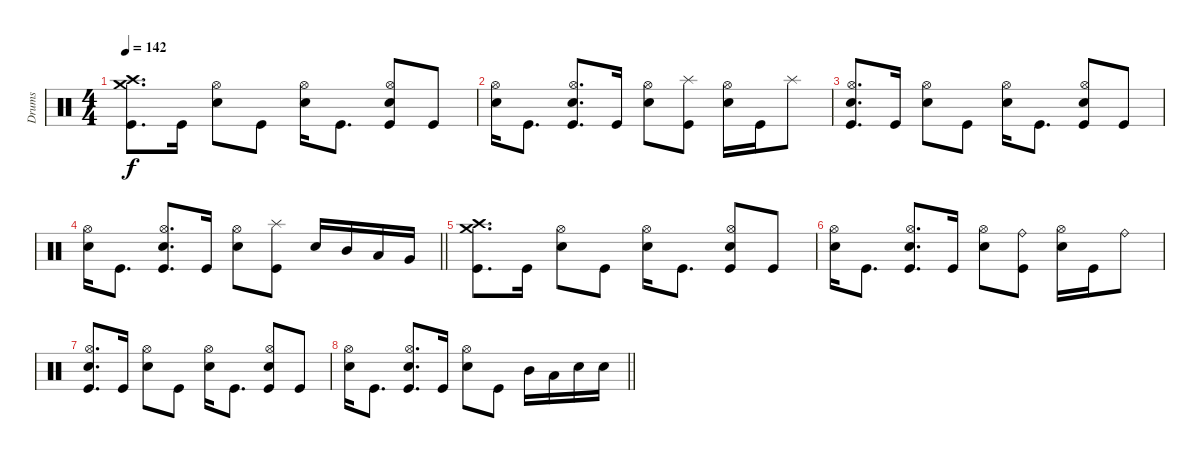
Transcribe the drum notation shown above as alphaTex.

\track ("Drums" "Drums") {instrument percussion}
\staff
\articulation defaults
\ts (4 4)
\tempo 142
\clef neutral
\ks c
("Crash high (hit)" "Crash medium (hit)" "Kick (hit)").8{d dy f} "Kick (hit)".16 ("Hi-Hat (open)" "Electric Snare (hit)").8 "Kick (hit)".8 ("Hi-Hat (open)" "Electric Snare (hit)").16 "Kick (hit)".8{d} ("Hi-Hat (open)" "Electric Snare (hit)" "Kick (hit)").8 "Kick (hit)".8 |
("Hi-Hat (open)" "Electric Snare (hit)").16 "Kick (hit)".8{d} ("Hi-Hat (open)" "Electric Snare (hit)" "Kick (hit)").8{d} "Kick (hit)".16 ("Hi-Hat (open)" "Electric Snare (hit)").8 ("Splash (hit)" "Kick (hit)").8 ("Hi-Hat (open)" "Electric Snare (hit)").16 "Kick (hit)".16 "Splash (hit)".8 |
("Hi-Hat (open)" "Electric Snare (hit)" "Kick (hit)").8{d} "Kick (hit)".16 ("Hi-Hat (open)" "Electric Snare (hit)").8 "Kick (hit)".8 ("Hi-Hat (open)" "Electric Snare (hit)").16 "Kick (hit)".8{d} ("Hi-Hat (open)" "Electric Snare (hit)" "Kick (hit)").8 "Kick (hit)".8 |
\barLineRight lightlight
("Hi-Hat (open)" "Electric Snare (hit)").16 "Kick (hit)".8{d} ("Hi-Hat (open)" "Electric Snare (hit)" "Kick (hit)").8{d} "Kick (hit)".16 ("Hi-Hat (open)" "Electric Snare (hit)").8 ("Splash (hit)" "Kick (hit)").8 "Electric Snare (hit)".16 "Mid Tom (hit)".16 "Low Tom (hit)".16 "Very Low Tom (hit)".16 |
("Crash high (hit)" "Crash medium (hit)" "Kick (hit)").8{d} "Kick (hit)".16 ("Hi-Hat (open)" "Electric Snare (hit)").8 "Kick (hit)".8 ("Hi-Hat (open)" "Electric Snare (hit)").16 "Kick (hit)".8{d} ("Hi-Hat (open)" "Electric Snare (hit)" "Kick (hit)").8 "Kick (hit)".8 |
("Hi-Hat (open)" "Electric Snare (hit)").16 "Kick (hit)".8{d} ("Hi-Hat (open)" "Electric Snare (hit)" "Kick (hit)").8{d} "Kick (hit)".16 ("Hi-Hat (open)" "Electric Snare (hit)").8 ("Ride (bell)" "Kick (hit)").8 ("Hi-Hat (open)" "Electric Snare (hit)").16 "Kick (hit)".16 "Ride (bell)".8 |
("Hi-Hat (open)" "Electric Snare (hit)" "Kick (hit)").8{d} "Kick (hit)".16 ("Hi-Hat (open)" "Electric Snare (hit)").8 "Kick (hit)".8 ("Hi-Hat (open)" "Electric Snare (hit)").16 "Kick (hit)".8{d} ("Hi-Hat (open)" "Electric Snare (hit)" "Kick (hit)").8 "Kick (hit)".8 |
\barLineRight lightlight
("Hi-Hat (open)" "Electric Snare (hit)").16 "Kick (hit)".8{d} ("Hi-Hat (open)" "Electric Snare (hit)" "Kick (hit)").8{d} "Kick (hit)".16 ("Hi-Hat (open)" "Electric Snare (hit)").8 "Kick (hit)".8 "Mid Tom (hit)".16 "Low Tom (hit)".16 "Electric Snare (hit)".16 "Electric Snare (hit)".16
